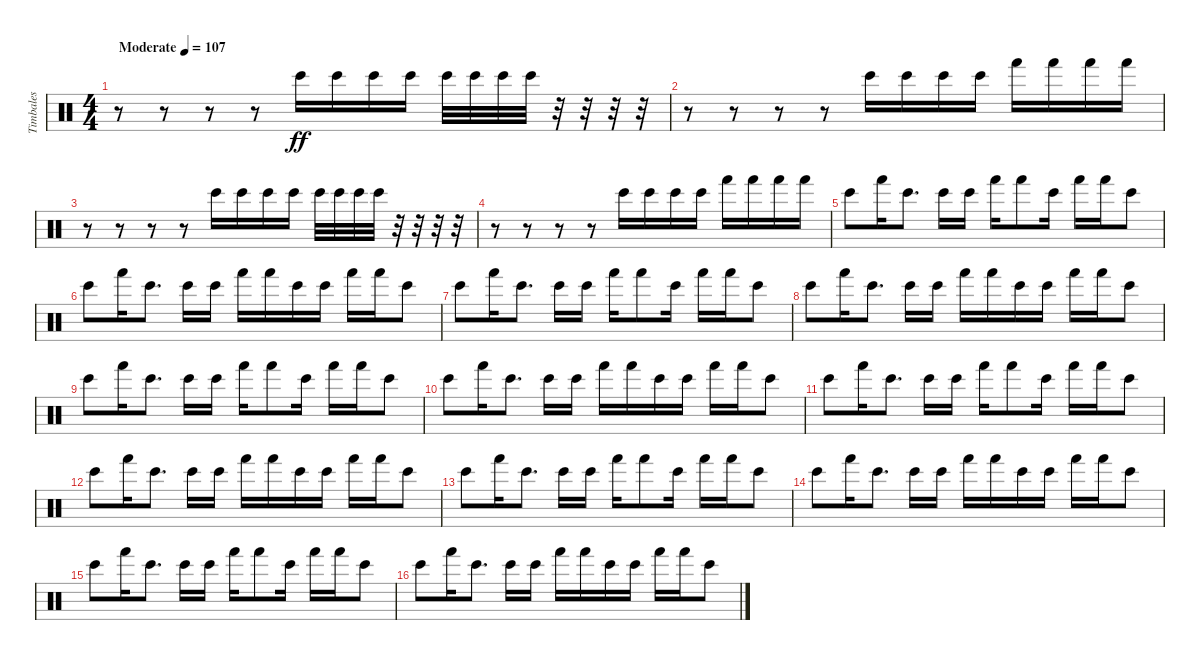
\track ("Timbales" "Timbales") {instrument percussion}
\staff {score}
\articulation defaults
\ts (4 4)
\tempo (107 "Moderate")
\clef neutral
\ks c
r.8{dy ff} r.8 r.8 r.8 "Bongo High (hit)".16 "Bongo High (hit)".16 "Bongo High (hit)".16 "Bongo High (hit)".16 "Bongo High (hit)".32 "Bongo High (hit)".32 "Bongo High (hit)".32 "Bongo High (hit)".32 r.32 r.32 r.32 r.32 |
r.8 r.8 r.8 r.8 "Bongo High (hit)".16 "Bongo High (hit)".16 "Bongo High (hit)".16 "Bongo High (hit)".16 "Hand (hit)".16 "Hand (hit)".16 "Hand (hit)".16 "Hand (hit)".16 |
r.8 r.8 r.8 r.8 "Bongo High (hit)".16 "Bongo High (hit)".16 "Bongo High (hit)".16 "Bongo High (hit)".16 "Bongo High (hit)".32 "Bongo High (hit)".32 "Bongo High (hit)".32 "Bongo High (hit)".32 r.32 r.32 r.32 r.32 |
r.8 r.8 r.8 r.8 "Bongo High (hit)".16 "Bongo High (hit)".16 "Bongo High (hit)".16 "Bongo High (hit)".16 "Hand (hit)".16 "Hand (hit)".16 "Hand (hit)".16 "Hand (hit)".16 |
"Bongo High (hit)".8 "Hand (hit)".16 "Bongo High (hit)".8{d} "Bongo High (hit)".16 "Bongo High (hit)".16 "Hand (hit)".16 "Hand (hit)".8 "Bongo High (hit)".16 "Hand (hit)".16 "Hand (hit)".16 "Bongo High (hit)".8 |
"Bongo High (hit)".8 "Hand (hit)".16 "Bongo High (hit)".8{d} "Bongo High (hit)".16 "Bongo High (hit)".16 "Hand (hit)".16 "Hand (hit)".16 "Bongo High (hit)".16 "Bongo High (hit)".16 "Hand (hit)".16 "Hand (hit)".16 "Bongo High (hit)".8 |
"Bongo High (hit)".8 "Hand (hit)".16 "Bongo High (hit)".8{d} "Bongo High (hit)".16 "Bongo High (hit)".16 "Hand (hit)".16 "Hand (hit)".8 "Bongo High (hit)".16 "Hand (hit)".16 "Hand (hit)".16 "Bongo High (hit)".8 |
"Bongo High (hit)".8 "Hand (hit)".16 "Bongo High (hit)".8{d} "Bongo High (hit)".16 "Bongo High (hit)".16 "Hand (hit)".16 "Hand (hit)".16 "Bongo High (hit)".16 "Bongo High (hit)".16 "Hand (hit)".16 "Hand (hit)".16 "Bongo High (hit)".8 |
"Bongo High (hit)".8 "Hand (hit)".16 "Bongo High (hit)".8{d} "Bongo High (hit)".16 "Bongo High (hit)".16 "Hand (hit)".16 "Hand (hit)".8 "Bongo High (hit)".16 "Hand (hit)".16 "Hand (hit)".16 "Bongo High (hit)".8 |
"Bongo High (hit)".8 "Hand (hit)".16 "Bongo High (hit)".8{d} "Bongo High (hit)".16 "Bongo High (hit)".16 "Hand (hit)".16 "Hand (hit)".16 "Bongo High (hit)".16 "Bongo High (hit)".16 "Hand (hit)".16 "Hand (hit)".16 "Bongo High (hit)".8 |
"Bongo High (hit)".8 "Hand (hit)".16 "Bongo High (hit)".8{d} "Bongo High (hit)".16 "Bongo High (hit)".16 "Hand (hit)".16 "Hand (hit)".8 "Bongo High (hit)".16 "Hand (hit)".16 "Hand (hit)".16 "Bongo High (hit)".8 |
"Bongo High (hit)".8 "Hand (hit)".16 "Bongo High (hit)".8{d} "Bongo High (hit)".16 "Bongo High (hit)".16 "Hand (hit)".16 "Hand (hit)".16 "Bongo High (hit)".16 "Bongo High (hit)".16 "Hand (hit)".16 "Hand (hit)".16 "Bongo High (hit)".8 |
"Bongo High (hit)".8 "Hand (hit)".16 "Bongo High (hit)".8{d} "Bongo High (hit)".16 "Bongo High (hit)".16 "Hand (hit)".16 "Hand (hit)".8 "Bongo High (hit)".16 "Hand (hit)".16 "Hand (hit)".16 "Bongo High (hit)".8 |
"Bongo High (hit)".8 "Hand (hit)".16 "Bongo High (hit)".8{d} "Bongo High (hit)".16 "Bongo High (hit)".16 "Hand (hit)".16 "Hand (hit)".16 "Bongo High (hit)".16 "Bongo High (hit)".16 "Hand (hit)".16 "Hand (hit)".16 "Bongo High (hit)".8 |
"Bongo High (hit)".8 "Hand (hit)".16 "Bongo High (hit)".8{d} "Bongo High (hit)".16 "Bongo High (hit)".16 "Hand (hit)".16 "Hand (hit)".8 "Bongo High (hit)".16 "Hand (hit)".16 "Hand (hit)".16 "Bongo High (hit)".8 |
"Bongo High (hit)".8 "Hand (hit)".16 "Bongo High (hit)".8{d} "Bongo High (hit)".16 "Bongo High (hit)".16 "Hand (hit)".16 "Hand (hit)".16 "Bongo High (hit)".16 "Bongo High (hit)".16 "Hand (hit)".16 "Hand (hit)".16 "Bongo High (hit)".8
